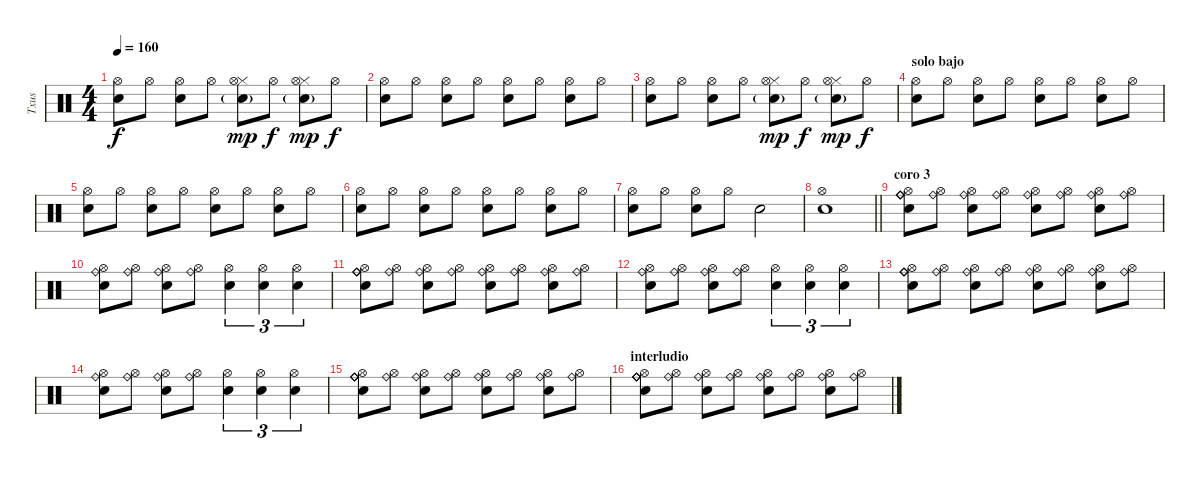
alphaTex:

\track ("Txus" "Txus") {instrument percussion}
\staff {score}
\articulation defaults
\ts (4 4)
\tempo 160
\clef neutral
\ks c
("Snare (hit) 2" "Hi-Hat (open)").8{dy f} "Hi-Hat (open)".8 ("Snare (hit) 2" "Hi-Hat (open)").8 "Hi-Hat (open)".8 ("Snare (hit) 2"{g} "Hi-Hat (closed)" "Hi-Hat (open)").8{dy mp} "Hi-Hat (open)".8{dy f} ("Snare (hit) 2"{g} "Hi-Hat (closed)" "Hi-Hat (open)").8{dy mp} "Hi-Hat (open)".8{dy f} |
("Snare (hit) 2" "Hi-Hat (open)").8 "Hi-Hat (open)".8 ("Snare (hit) 2" "Hi-Hat (open)").8 "Hi-Hat (open)".8 ("Snare (hit) 2" "Hi-Hat (open)").8 "Hi-Hat (open)".8 ("Snare (hit) 2" "Hi-Hat (open)").8 "Hi-Hat (open)".8 |
("Snare (hit) 2" "Hi-Hat (open)").8 "Hi-Hat (open)".8 ("Snare (hit) 2" "Hi-Hat (open)").8 "Hi-Hat (open)".8 ("Snare (hit) 2"{g} "Hi-Hat (closed)" "Hi-Hat (open)").8{dy mp} "Hi-Hat (open)".8{dy f} ("Snare (hit) 2"{g} "Hi-Hat (closed)" "Hi-Hat (open)").8{dy mp} "Hi-Hat (open)".8{dy f} |
\section ("" "solo bajo")
("Snare (hit) 2" "Hi-Hat (open)").8 "Hi-Hat (open)".8 ("Snare (hit) 2" "Hi-Hat (open)").8 "Hi-Hat (open)".8 ("Snare (hit) 2" "Hi-Hat (open)").8 "Hi-Hat (open)".8 ("Snare (hit) 2" "Hi-Hat (open)").8 "Hi-Hat (open)".8 |
("Snare (hit) 2" "Hi-Hat (open)").8 "Hi-Hat (open)".8 ("Snare (hit) 2" "Hi-Hat (open)").8 "Hi-Hat (open)".8 ("Snare (hit) 2" "Hi-Hat (open)").8 "Hi-Hat (open)".8 ("Snare (hit) 2" "Hi-Hat (open)").8 "Hi-Hat (open)".8 |
("Snare (hit) 2" "Hi-Hat (open)").8 "Hi-Hat (open)".8 ("Snare (hit) 2" "Hi-Hat (open)").8 "Hi-Hat (open)".8 ("Snare (hit) 2" "Hi-Hat (open)").8 "Hi-Hat (open)".8 ("Snare (hit) 2" "Hi-Hat (open)").8 "Hi-Hat (open)".8 |
("Snare (hit) 2" "Hi-Hat (open)").8 "Hi-Hat (open)".8 ("Snare (hit) 2" "Hi-Hat (open)").8 "Hi-Hat (open)".8 "Snare (hit) 2".2 |
\barLineRight lightlight
("Snare (hit) 2" "Hi-Hat (open)").1 |
\section ("" "coro 3")
("Snare (hit) 2" "Hi-Hat (open)" "Ride (bell)" "Ride (bell)" "Ride (bell)").8 ("Hi-Hat (open)" "Ride (bell)").8 ("Snare (hit) 2" "Hi-Hat (open)" "Ride (bell)").8 ("Hi-Hat (open)" "Ride (bell)").8 ("Snare (hit) 2" "Hi-Hat (open)" "Ride (bell)").8 ("Hi-Hat (open)" "Ride (bell)").8 ("Snare (hit) 2" "Hi-Hat (open)" "Ride (bell)").8 ("Hi-Hat (open)" "Ride (bell)").8 |
("Snare (hit) 2" "Ride (bell)" "Hi-Hat (open)").8 ("Ride (bell)" "Hi-Hat (open)").8 ("Snare (hit) 2" "Ride (bell)" "Hi-Hat (open)").8 ("Ride (bell)" "Hi-Hat (open)").8 ("Snare (hit) 2" "Hi-Hat (open)").4{tu (3 2)} ("Snare (hit) 2" "Hi-Hat (open)").4{tu (3 2)} ("Snare (hit) 2" "Hi-Hat (open)").4{tu (3 2)} |
("Snare (hit) 2" "Hi-Hat (open)" "Ride (bell)" "Ride (bell)" "Ride (bell)").8 ("Hi-Hat (open)" "Ride (bell)").8 ("Snare (hit) 2" "Hi-Hat (open)" "Ride (bell)").8 ("Hi-Hat (open)" "Ride (bell)").8 ("Snare (hit) 2" "Hi-Hat (open)" "Ride (bell)").8 ("Hi-Hat (open)" "Ride (bell)").8 ("Snare (hit) 2" "Hi-Hat (open)" "Ride (bell)").8 ("Hi-Hat (open)" "Ride (bell)").8 |
("Snare (hit) 2" "Ride (bell)" "Hi-Hat (open)").8 ("Ride (bell)" "Hi-Hat (open)").8 ("Snare (hit) 2" "Ride (bell)" "Hi-Hat (open)").8 ("Ride (bell)" "Hi-Hat (open)").8 ("Snare (hit) 2" "Hi-Hat (open)").4{tu (3 2)} ("Snare (hit) 2" "Hi-Hat (open)").4{tu (3 2)} ("Snare (hit) 2" "Hi-Hat (open)").4{tu (3 2)} |
("Snare (hit) 2" "Hi-Hat (open)" "Ride (bell)" "Ride (bell)" "Ride (bell)").8 ("Hi-Hat (open)" "Ride (bell)").8 ("Snare (hit) 2" "Hi-Hat (open)" "Ride (bell)").8 ("Hi-Hat (open)" "Ride (bell)").8 ("Snare (hit) 2" "Hi-Hat (open)" "Ride (bell)").8 ("Hi-Hat (open)" "Ride (bell)").8 ("Snare (hit) 2" "Hi-Hat (open)" "Ride (bell)").8 ("Hi-Hat (open)" "Ride (bell)").8 |
("Snare (hit) 2" "Ride (bell)" "Hi-Hat (open)").8 ("Ride (bell)" "Hi-Hat (open)").8 ("Snare (hit) 2" "Ride (bell)" "Hi-Hat (open)").8 ("Ride (bell)" "Hi-Hat (open)").8 ("Snare (hit) 2" "Hi-Hat (open)").4{tu (3 2)} ("Snare (hit) 2" "Hi-Hat (open)").4{tu (3 2)} ("Snare (hit) 2" "Hi-Hat (open)").4{tu (3 2)} |
("Snare (hit) 2" "Hi-Hat (open)" "Ride (bell)" "Ride (bell)" "Ride (bell)").8 ("Hi-Hat (open)" "Ride (bell)").8 ("Snare (hit) 2" "Hi-Hat (open)" "Ride (bell)").8 ("Hi-Hat (open)" "Ride (bell)").8 ("Snare (hit) 2" "Hi-Hat (open)" "Ride (bell)").8 ("Hi-Hat (open)" "Ride (bell)").8 ("Snare (hit) 2" "Hi-Hat (open)" "Ride (bell)").8 ("Hi-Hat (open)" "Ride (bell)").8 |
\section ("" "interludio")
("Snare (hit) 2" "Hi-Hat (open)" "Ride (bell)" "Ride (bell)" "Ride (bell)").8 ("Hi-Hat (open)" "Ride (bell)").8 ("Snare (hit) 2" "Hi-Hat (open)" "Ride (bell)").8 ("Hi-Hat (open)" "Ride (bell)").8 ("Snare (hit) 2" "Hi-Hat (open)" "Ride (bell)").8 ("Hi-Hat (open)" "Ride (bell)").8 ("Snare (hit) 2" "Hi-Hat (open)" "Ride (bell)").8 ("Hi-Hat (open)" "Ride (bell)").8
